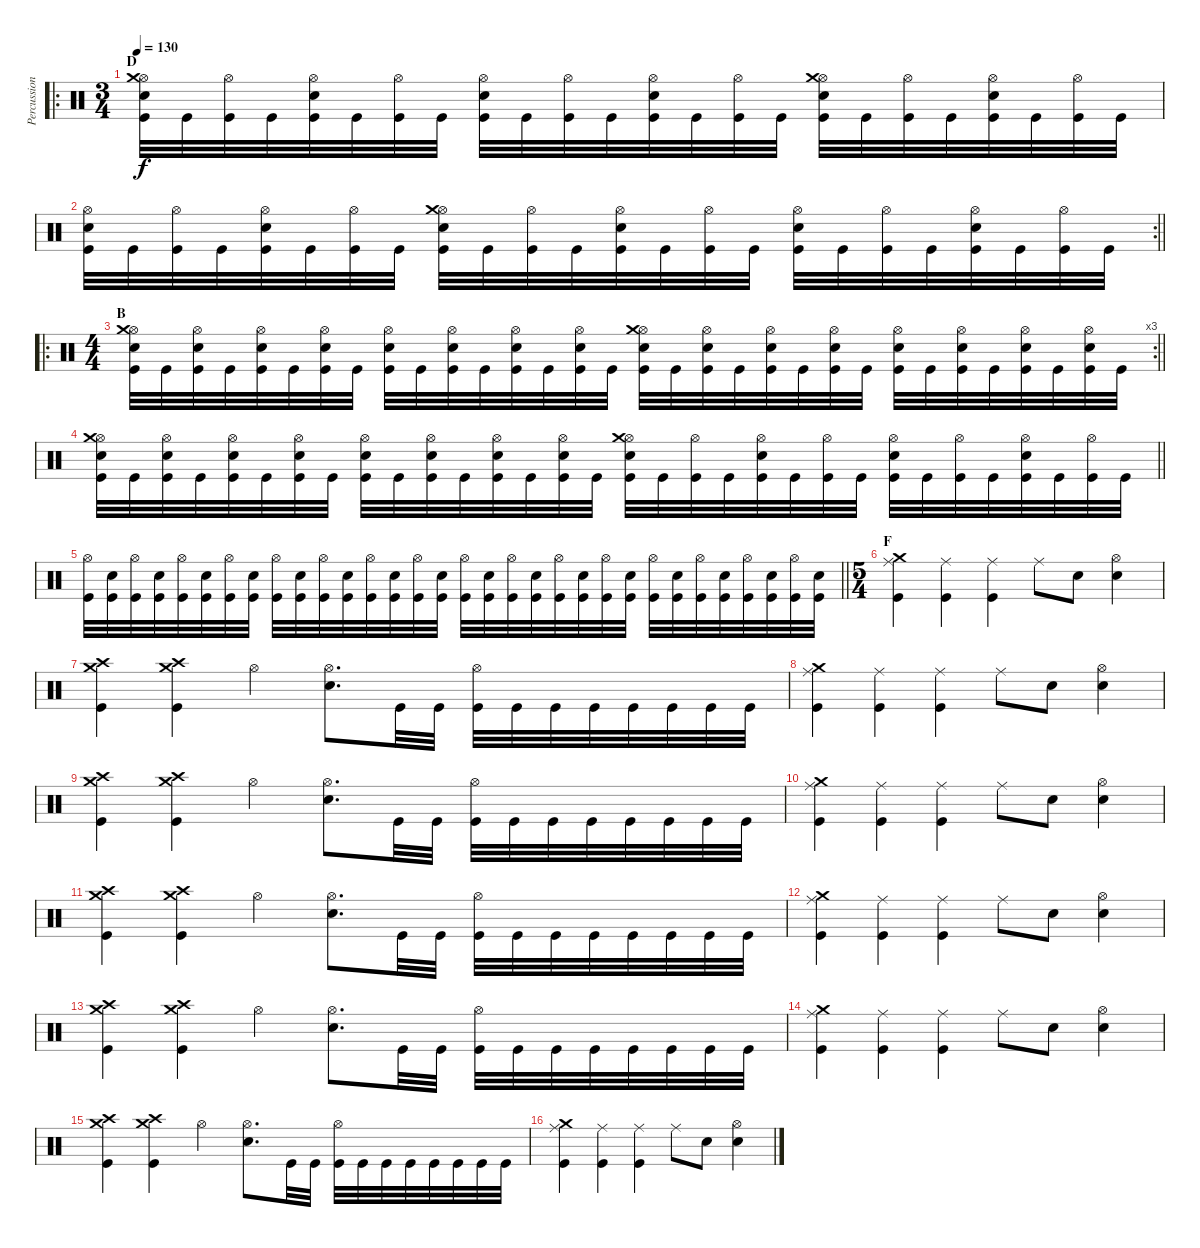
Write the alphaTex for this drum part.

\track ("Percussion" "Percussion") {instrument percussion}
\staff {score}
\articulation defaults
\ro
\ts (3 4)
\section ("" "D")
\tempo 130
\clef neutral
\ks c
("Kick (hit)" "Snare (hit) 2" "Hi-Hat (open)" "Crash medium (hit)").32{dy f} "Kick (hit)".32 ("Kick (hit)" "Hi-Hat (open)").32 "Kick (hit)".32 ("Kick (hit)" "Snare (hit) 2" "Hi-Hat (open)").32 "Kick (hit)".32 ("Kick (hit)" "Hi-Hat (open)").32 "Kick (hit)".32 ("Kick (hit)" "Snare (hit) 2" "Hi-Hat (open)").32 "Kick (hit)".32 ("Kick (hit)" "Hi-Hat (open)").32 "Kick (hit)".32 ("Kick (hit)" "Snare (hit) 2" "Hi-Hat (open)").32 "Kick (hit)".32 ("Kick (hit)" "Hi-Hat (open)").32 "Kick (hit)".32 ("Kick (hit)" "Snare (hit) 2" "Hi-Hat (open)" "Crash medium (hit)").32 "Kick (hit)".32 ("Kick (hit)" "Hi-Hat (open)").32 "Kick (hit)".32 ("Kick (hit)" "Snare (hit) 2" "Hi-Hat (open)").32 "Kick (hit)".32 ("Kick (hit)" "Hi-Hat (open)").32 "Kick (hit)".32 |
\rc 2
\barLineRight lightlight
("Kick (hit)" "Snare (hit) 2" "Hi-Hat (open)").32 "Kick (hit)".32 ("Kick (hit)" "Hi-Hat (open)").32 "Kick (hit)".32 ("Kick (hit)" "Snare (hit) 2" "Hi-Hat (open)").32 "Kick (hit)".32 ("Kick (hit)" "Hi-Hat (open)").32 "Kick (hit)".32 ("Kick (hit)" "Snare (hit) 2" "Hi-Hat (open)" "Crash medium (hit)").32 "Kick (hit)".32 ("Kick (hit)" "Hi-Hat (open)").32 "Kick (hit)".32 ("Kick (hit)" "Snare (hit) 2" "Hi-Hat (open)").32 "Kick (hit)".32 ("Kick (hit)" "Hi-Hat (open)").32 "Kick (hit)".32 ("Kick (hit)" "Snare (hit) 2" "Hi-Hat (open)").32 "Kick (hit)".32 ("Kick (hit)" "Hi-Hat (open)").32 "Kick (hit)".32 ("Kick (hit)" "Snare (hit) 2" "Hi-Hat (open)").32 "Kick (hit)".32 ("Kick (hit)" "Hi-Hat (open)").32 "Kick (hit)".32 |
\ro
\rc 3
\ts (4 4)
\section ("" "B")
\barLineRight lightlight
("Kick (hit)" "Hi-Hat (open)" "Snare (hit) 2" "Crash medium (hit)").32 "Kick (hit)".32 ("Kick (hit)" "Snare (hit) 2" "Hi-Hat (open)").32 "Kick (hit)".32 ("Kick (hit)" "Snare (hit) 2" "Hi-Hat (open)").32 "Kick (hit)".32 ("Kick (hit)" "Snare (hit) 2" "Hi-Hat (open)").32 "Kick (hit)".32 ("Kick (hit)" "Snare (hit) 2" "Hi-Hat (open)").32 "Kick (hit)".32 ("Kick (hit)" "Snare (hit) 2" "Hi-Hat (open)").32 "Kick (hit)".32 ("Kick (hit)" "Snare (hit) 2" "Hi-Hat (open)").32 "Kick (hit)".32 ("Kick (hit)" "Snare (hit) 2" "Hi-Hat (open)").32 "Kick (hit)".32 ("Kick (hit)" "Hi-Hat (open)" "Snare (hit) 2" "Crash medium (hit)").32 "Kick (hit)".32 ("Kick (hit)" "Snare (hit) 2" "Hi-Hat (open)").32 "Kick (hit)".32 ("Kick (hit)" "Snare (hit) 2" "Hi-Hat (open)").32 "Kick (hit)".32 ("Kick (hit)" "Snare (hit) 2" "Hi-Hat (open)").32 "Kick (hit)".32 ("Kick (hit)" "Snare (hit) 2" "Hi-Hat (open)").32 "Kick (hit)".32 ("Kick (hit)" "Snare (hit) 2" "Hi-Hat (open)").32 "Kick (hit)".32 ("Kick (hit)" "Snare (hit) 2" "Hi-Hat (open)").32 "Kick (hit)".32 ("Kick (hit)" "Snare (hit) 2" "Hi-Hat (open)").32 "Kick (hit)".32 |
\barLineRight lightlight
("Kick (hit)" "Hi-Hat (open)" "Snare (hit) 2" "Crash medium (hit)").32 "Kick (hit)".32 ("Kick (hit)" "Snare (hit) 2" "Hi-Hat (open)").32 "Kick (hit)".32 ("Kick (hit)" "Snare (hit) 2" "Hi-Hat (open)").32 "Kick (hit)".32 ("Kick (hit)" "Snare (hit) 2" "Hi-Hat (open)").32 "Kick (hit)".32 ("Kick (hit)" "Snare (hit) 2" "Hi-Hat (open)").32 "Kick (hit)".32 ("Kick (hit)" "Snare (hit) 2" "Hi-Hat (open)").32 "Kick (hit)".32 ("Kick (hit)" "Snare (hit) 2" "Hi-Hat (open)").32 "Kick (hit)".32 ("Kick (hit)" "Snare (hit) 2" "Hi-Hat (open)").32 "Kick (hit)".32 ("Kick (hit)" "Hi-Hat (open)" "Snare (hit) 2" "Crash medium (hit)").32 "Kick (hit)".32 ("Kick (hit)" "Hi-Hat (open)").32 "Kick (hit)".32 ("Kick (hit)" "Snare (hit) 2" "Hi-Hat (open)").32 "Kick (hit)".32 ("Kick (hit)" "Hi-Hat (open)").32 "Kick (hit)".32 ("Kick (hit)" "Snare (hit) 2" "Hi-Hat (open)").32 "Kick (hit)".32 ("Kick (hit)" "Hi-Hat (open)").32 "Kick (hit)".32 ("Kick (hit)" "Snare (hit) 2" "Hi-Hat (open)").32 "Kick (hit)".32 ("Kick (hit)" "Hi-Hat (open)").32 "Kick (hit)".32 |
\barLineRight lightlight
("Kick (hit)" "Hi-Hat (open)").32 ("Kick (hit)" "Snare (hit) 2").32 ("Kick (hit)" "Hi-Hat (open)").32 ("Kick (hit)" "Snare (hit) 2").32 ("Kick (hit)" "Hi-Hat (open)").32 ("Kick (hit)" "Snare (hit) 2").32 ("Kick (hit)" "Hi-Hat (open)").32 ("Kick (hit)" "Snare (hit) 2").32 ("Kick (hit)" "Hi-Hat (open)").32 ("Kick (hit)" "Snare (hit) 2").32 ("Kick (hit)" "Hi-Hat (open)").32 ("Kick (hit)" "Snare (hit) 2").32 ("Kick (hit)" "Hi-Hat (open)").32 ("Kick (hit)" "Snare (hit) 2").32 ("Kick (hit)" "Hi-Hat (open)").32 ("Kick (hit)" "Snare (hit) 2").32 ("Kick (hit)" "Hi-Hat (open)").32 ("Kick (hit)" "Snare (hit) 2").32 ("Kick (hit)" "Hi-Hat (open)").32 ("Kick (hit)" "Snare (hit) 2").32 ("Kick (hit)" "Hi-Hat (open)").32 ("Kick (hit)" "Snare (hit) 2").32 ("Kick (hit)" "Hi-Hat (open)").32 ("Kick (hit)" "Snare (hit) 2").32 ("Kick (hit)" "Hi-Hat (open)").32 ("Kick (hit)" "Snare (hit) 2").32 ("Kick (hit)" "Hi-Hat (open)").32 ("Kick (hit)" "Snare (hit) 2").32 ("Kick (hit)" "Hi-Hat (open)").32 ("Kick (hit)" "Snare (hit) 2").32 ("Kick (hit)" "Hi-Hat (open)").32 ("Kick (hit)" "Snare (hit) 2").32 |
\ts (5 4)
\section ("" "F")
("Kick (hit)" "Ride (middle)" "Crash medium (hit)").4 ("Kick (hit)" "Ride (middle)").4 ("Kick (hit)" "Ride (middle)").4 "Ride (middle)".8 "Snare (hit) 2".8 ("Snare (hit) 2" "Hi-Hat (open)").4 |
("Kick (hit)" "Crash medium (hit)" "Crash high (hit)").4 ("Kick (hit)" "Crash medium (hit)" "Crash high (hit)").4 "Hi-Hat (open)".4 ("Snare (hit) 2" "Hi-Hat (open)").8{d} "Kick (hit)".32 "Kick (hit)".32 ("Kick (hit)" "Hi-Hat (open)").32 "Kick (hit)".32 "Kick (hit)".32 "Kick (hit)".32 "Kick (hit)".32 "Kick (hit)".32 "Kick (hit)".32 "Kick (hit)".32 |
("Kick (hit)" "Ride (middle)" "Crash medium (hit)").4 ("Kick (hit)" "Ride (middle)").4 ("Kick (hit)" "Ride (middle)").4 "Ride (middle)".8 "Snare (hit) 2".8 ("Snare (hit) 2" "Hi-Hat (open)").4 |
("Kick (hit)" "Crash medium (hit)" "Crash high (hit)").4 ("Kick (hit)" "Crash medium (hit)" "Crash high (hit)").4 "Hi-Hat (open)".4 ("Snare (hit) 2" "Hi-Hat (open)").8{d} "Kick (hit)".32 "Kick (hit)".32 ("Kick (hit)" "Hi-Hat (open)").32 "Kick (hit)".32 "Kick (hit)".32 "Kick (hit)".32 "Kick (hit)".32 "Kick (hit)".32 "Kick (hit)".32 "Kick (hit)".32 |
("Kick (hit)" "Ride (middle)" "Crash medium (hit)").4 ("Kick (hit)" "Ride (middle)").4 ("Kick (hit)" "Ride (middle)").4 "Ride (middle)".8 "Snare (hit) 2".8 ("Snare (hit) 2" "Hi-Hat (open)").4 |
("Kick (hit)" "Crash medium (hit)" "Crash high (hit)").4 ("Kick (hit)" "Crash medium (hit)" "Crash high (hit)").4 "Hi-Hat (open)".4 ("Snare (hit) 2" "Hi-Hat (open)").8{d} "Kick (hit)".32 "Kick (hit)".32 ("Kick (hit)" "Hi-Hat (open)").32 "Kick (hit)".32 "Kick (hit)".32 "Kick (hit)".32 "Kick (hit)".32 "Kick (hit)".32 "Kick (hit)".32 "Kick (hit)".32 |
("Kick (hit)" "Ride (middle)" "Crash medium (hit)").4 ("Kick (hit)" "Ride (middle)").4 ("Kick (hit)" "Ride (middle)").4 "Ride (middle)".8 "Snare (hit) 2".8 ("Snare (hit) 2" "Hi-Hat (open)").4 |
("Kick (hit)" "Crash medium (hit)" "Crash high (hit)").4 ("Kick (hit)" "Crash medium (hit)" "Crash high (hit)").4 "Hi-Hat (open)".4 ("Snare (hit) 2" "Hi-Hat (open)").8{d} "Kick (hit)".32 "Kick (hit)".32 ("Kick (hit)" "Hi-Hat (open)").32 "Kick (hit)".32 "Kick (hit)".32 "Kick (hit)".32 "Kick (hit)".32 "Kick (hit)".32 "Kick (hit)".32 "Kick (hit)".32 |
("Kick (hit)" "Ride (middle)" "Crash medium (hit)").4 ("Kick (hit)" "Ride (middle)").4 ("Kick (hit)" "Ride (middle)").4 "Ride (middle)".8 "Snare (hit) 2".8 ("Snare (hit) 2" "Hi-Hat (open)").4 |
("Kick (hit)" "Crash medium (hit)" "Crash high (hit)").4 ("Kick (hit)" "Crash medium (hit)" "Crash high (hit)").4 "Hi-Hat (open)".4 ("Snare (hit) 2" "Hi-Hat (open)").8{d} "Kick (hit)".32 "Kick (hit)".32 ("Kick (hit)" "Hi-Hat (open)").32 "Kick (hit)".32 "Kick (hit)".32 "Kick (hit)".32 "Kick (hit)".32 "Kick (hit)".32 "Kick (hit)".32 "Kick (hit)".32 |
("Kick (hit)" "Ride (middle)" "Crash medium (hit)").4 ("Kick (hit)" "Ride (middle)").4 ("Kick (hit)" "Ride (middle)").4 "Ride (middle)".8 "Snare (hit) 2".8 ("Snare (hit) 2" "Hi-Hat (open)").4
